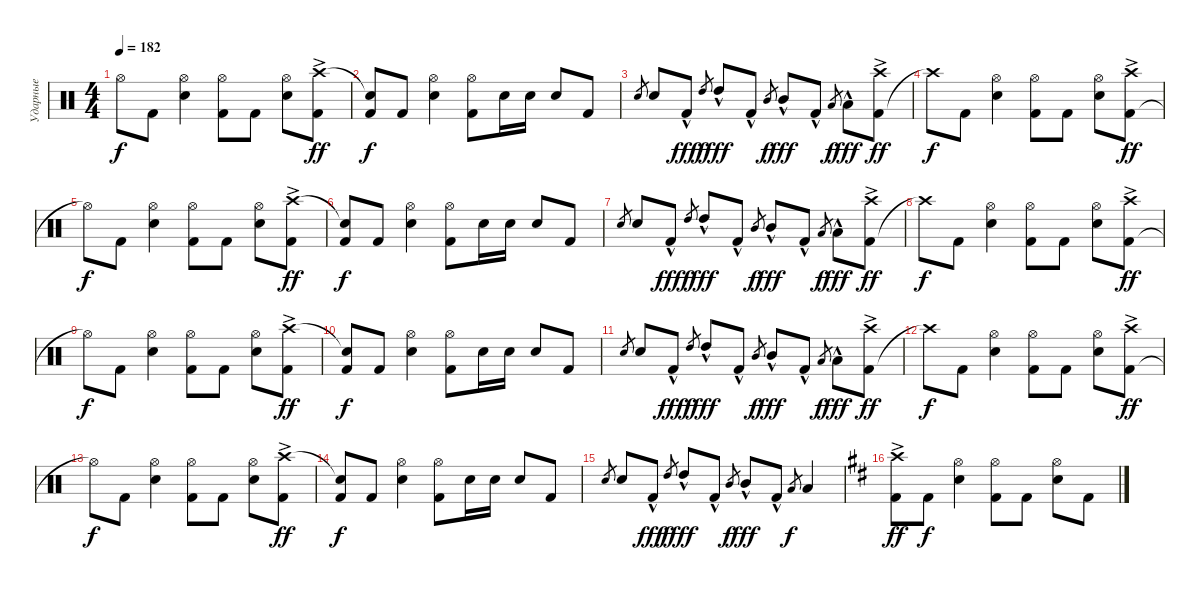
\track ("Ударные" "Ударные") {instrument percussion}
\staff {score}
\articulation defaults
\ts (4 4)
\tempo 182
\clef neutral
\ks c "Hi-Hat (open)"{t}.8{dy f} "Kick (hit) 2".8
("Snare (hit) 2" "Hi-Hat (open)").4 ("Kick (hit) 2" "Hi-Hat (open)").8 "Kick (hit) 2".8 ("Snare (hit) 2" "Hi-Hat (open)").8 ("Kick (hit) 2" "Crash high (hit)"{ac}).8{dy ff} |
("Kick (hit) 2" "Snare (hit)"{t}).8{dy f} "Kick (hit) 2".8 ("Snare (hit) 2" "Hi-Hat (open)").4 ("Kick (hit) 2" "Hi-Hat (open)").8 "Snare (hit) 2".16 "Snare (hit) 2".16 "Snare (hit) 2".8 "Kick (hit) 2".8 |
"Snare (hit) 2".8{gr} "Snare (hit) 2".8 "Kick (hit) 2"{hac}.8{dy fff} "High Tom (hit)".8{gr dy f} "High Tom (hit)"{hac}.8{dy fff} "Kick (hit) 2"{hac}.8 "Mid Tom (hit)".8{gr dy f} "Mid Tom (hit)"{hac}.8{dy fff} "Kick (hit) 2"{hac}.8 "Low Tom (hit)".8{gr dy f} "Low Tom (hit)"{hac}.8{dy fff} ("Kick (hit) 2" "Crash high (hit)"{ac}).8{dy ff} |
"Crash high (hit)"{t}.8{dy f} "Kick (hit) 2".8 ("Snare (hit) 2" "Hi-Hat (open)").4 ("Kick (hit) 2" "Hi-Hat (open)").8 "Kick (hit) 2".8 ("Snare (hit) 2" "Hi-Hat (open)").8 ("Kick (hit) 2" "Crash high (hit)"{ac}).8{dy ff} |
"Hi-Hat (open)"{t}.8{dy f} "Kick (hit) 2".8 ("Snare (hit) 2" "Hi-Hat (open)").4 ("Kick (hit) 2" "Hi-Hat (open)").8 "Kick (hit) 2".8 ("Snare (hit) 2" "Hi-Hat (open)").8 ("Kick (hit) 2" "Crash high (hit)"{ac}).8{dy ff} |
("Kick (hit) 2" "Snare (hit)"{t}).8{dy f} "Kick (hit) 2".8 ("Snare (hit) 2" "Hi-Hat (open)").4 ("Kick (hit) 2" "Hi-Hat (open)").8 "Snare (hit) 2".16 "Snare (hit) 2".16 "Snare (hit) 2".8 "Kick (hit) 2".8 |
"Snare (hit) 2".8{gr} "Snare (hit) 2".8 "Kick (hit) 2"{hac}.8{dy fff} "High Tom (hit)".8{gr dy f} "High Tom (hit)"{hac}.8{dy fff} "Kick (hit) 2"{hac}.8 "Mid Tom (hit)".8{gr dy f} "Mid Tom (hit)"{hac}.8{dy fff} "Kick (hit) 2"{hac}.8 "Low Tom (hit)".8{gr dy f} "Low Tom (hit)"{hac}.8{dy fff} ("Kick (hit) 2" "Crash high (hit)"{ac}).8{dy ff} |
"Crash high (hit)"{t}.8{dy f} "Kick (hit) 2".8 ("Snare (hit) 2" "Hi-Hat (open)").4 ("Kick (hit) 2" "Hi-Hat (open)").8 "Kick (hit) 2".8 ("Snare (hit) 2" "Hi-Hat (open)").8 ("Kick (hit) 2" "Crash high (hit)"{ac}).8{dy ff} |
"Hi-Hat (open)"{t}.8{dy f} "Kick (hit) 2".8 ("Snare (hit) 2" "Hi-Hat (open)").4 ("Kick (hit) 2" "Hi-Hat (open)").8 "Kick (hit) 2".8 ("Snare (hit) 2" "Hi-Hat (open)").8 ("Kick (hit) 2" "Crash high (hit)"{ac}).8{dy ff} |
("Kick (hit) 2" "Snare (hit)"{t}).8{dy f} "Kick (hit) 2".8 ("Snare (hit) 2" "Hi-Hat (open)").4 ("Kick (hit) 2" "Hi-Hat (open)").8 "Snare (hit) 2".16 "Snare (hit) 2".16 "Snare (hit) 2".8 "Kick (hit) 2".8 |
"Snare (hit) 2".8{gr} "Snare (hit) 2".8 "Kick (hit) 2"{hac}.8{dy fff} "High Tom (hit)".8{gr dy f} "High Tom (hit)"{hac}.8{dy fff} "Kick (hit) 2"{hac}.8 "Mid Tom (hit)".8{gr dy f} "Mid Tom (hit)"{hac}.8{dy fff} "Kick (hit) 2"{hac}.8 "Low Tom (hit)".8{gr dy f} "Low Tom (hit)"{hac}.8{dy fff} ("Kick (hit) 2" "Crash high (hit)"{ac}).8{dy ff} |
"Crash high (hit)"{t}.8{dy f} "Kick (hit) 2".8 ("Snare (hit) 2" "Hi-Hat (open)").4 ("Kick (hit) 2" "Hi-Hat (open)").8 "Kick (hit) 2".8 ("Snare (hit) 2" "Hi-Hat (open)").8 ("Kick (hit) 2" "Crash high (hit)"{ac}).8{dy ff} |
"Hi-Hat (open)"{t}.8{dy f} "Kick (hit) 2".8 ("Snare (hit) 2" "Hi-Hat (open)").4 ("Kick (hit) 2" "Hi-Hat (open)").8 "Kick (hit) 2".8 ("Snare (hit) 2" "Hi-Hat (open)").8 ("Kick (hit) 2" "Crash high (hit)"{ac}).8{dy ff} |
("Kick (hit) 2" "Snare (hit)"{t}).8{dy f} "Kick (hit) 2".8 ("Snare (hit) 2" "Hi-Hat (open)").4 ("Kick (hit) 2" "Hi-Hat (open)").8 "Snare (hit) 2".16 "Snare (hit) 2".16 "Snare (hit) 2".8 "Kick (hit) 2".8 |
"Snare (hit) 2".8{gr} "Snare (hit) 2".8 "Kick (hit) 2"{hac}.8{dy fff} "High Tom (hit)".8{gr dy f} "High Tom (hit)"{hac}.8{dy fff} "Kick (hit) 2"{hac}.8 "Mid Tom (hit)".8{gr dy f} "Mid Tom (hit)"{hac}.8{dy fff} "Kick (hit) 2"{hac}.8 "Low Tom (hit)".8{gr dy f} "Low Tom (hit)".4 |
\ks d
("Kick (hit) 2" "Crash high (hit)"{ac}).8{dy ff} "Kick (hit) 2".8{dy f} ("Snare (hit) 2" "Hi-Hat (open)").4 ("Kick (hit) 2" "Hi-Hat (open)").8 "Kick (hit) 2".8 ("Snare (hit) 2" "Hi-Hat (open)").8 "Kick (hit) 2".8
